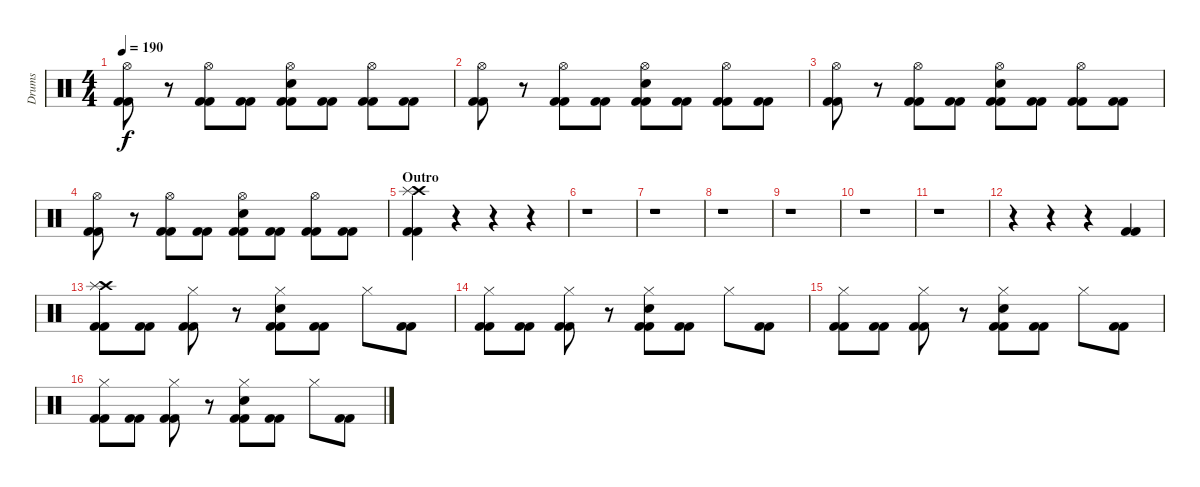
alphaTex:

\track ("Drums" "Drums") {instrument percussion}
\staff {score}
\articulation defaults
\ts (4 4)
\tempo 190
\clef neutral
\ks c
("Hi-Hat (open)" "Kick (hit) 2" "Kick (hit) 2").8{dy f} r.8 ("Hi-Hat (open)" "Kick (hit) 2" "Kick (hit) 2").8 ("Kick (hit) 2" "Kick (hit) 2").8 ("Hi-Hat (open)" "Snare (hit) 2" "Kick (hit) 2" "Kick (hit) 2").8 ("Kick (hit) 2" "Kick (hit) 2").8 ("Hi-Hat (open)" "Kick (hit) 2" "Kick (hit) 2").8 ("Kick (hit) 2" "Kick (hit) 2").8 |
("Hi-Hat (open)" "Kick (hit) 2" "Kick (hit) 2").8 r.8 ("Hi-Hat (open)" "Kick (hit) 2" "Kick (hit) 2").8 ("Kick (hit) 2" "Kick (hit) 2").8 ("Hi-Hat (open)" "Snare (hit) 2" "Kick (hit) 2" "Kick (hit) 2").8 ("Kick (hit) 2" "Kick (hit) 2").8 ("Hi-Hat (open)" "Kick (hit) 2" "Kick (hit) 2").8 ("Kick (hit) 2" "Kick (hit) 2").8 |
("Hi-Hat (open)" "Kick (hit) 2" "Kick (hit) 2").8 r.8 ("Hi-Hat (open)" "Kick (hit) 2" "Kick (hit) 2").8 ("Kick (hit) 2" "Kick (hit) 2").8 ("Hi-Hat (open)" "Snare (hit) 2" "Kick (hit) 2" "Kick (hit) 2").8 ("Kick (hit) 2" "Kick (hit) 2").8 ("Hi-Hat (open)" "Kick (hit) 2" "Kick (hit) 2").8 ("Kick (hit) 2" "Kick (hit) 2").8 |
("Hi-Hat (open)" "Kick (hit) 2" "Kick (hit) 2").8 r.8 ("Hi-Hat (open)" "Kick (hit) 2" "Kick (hit) 2").8 ("Kick (hit) 2" "Kick (hit) 2").8 ("Hi-Hat (open)" "Snare (hit) 2" "Kick (hit) 2" "Kick (hit) 2").8 ("Kick (hit) 2" "Kick (hit) 2").8 ("Hi-Hat (open)" "Kick (hit) 2" "Kick (hit) 2").8 ("Kick (hit) 2" "Kick (hit) 2").8 |
\section ("" "Outro")
("Crash high (hit)" "Splash (hit)" "Kick (hit) 2" "Kick (hit) 2").4 r.4 r.4 r.4 |
r.1 |
r.1 |
r.1 |
r.1 |
r.1 |
r.1 |
r.4 r.4 r.4 ("Kick (hit) 2" "Kick (hit) 2").4 |
("Crash high (hit)" "Splash (hit)" "Kick (hit) 2" "Kick (hit) 2").8 ("Kick (hit) 2" "Kick (hit) 2").8 ("Hi-Hat (closed)" "Kick (hit) 2" "Kick (hit) 2").8 r.8 ("Hi-Hat (closed)" "Snare (hit) 2" "Kick (hit) 2" "Kick (hit) 2").8 ("Kick (hit) 2" "Kick (hit) 2").8 "Hi-Hat (closed)".8 ("Kick (hit) 2" "Kick (hit) 2").8 |
("Hi-Hat (closed)" "Kick (hit) 2" "Kick (hit) 2").8 ("Kick (hit) 2" "Kick (hit) 2").8 ("Hi-Hat (closed)" "Kick (hit) 2" "Kick (hit) 2").8 r.8 ("Hi-Hat (closed)" "Snare (hit) 2" "Kick (hit) 2" "Kick (hit) 2").8 ("Kick (hit) 2" "Kick (hit) 2").8 "Hi-Hat (closed)".8 ("Kick (hit) 2" "Kick (hit) 2").8 |
("Hi-Hat (closed)" "Kick (hit) 2" "Kick (hit) 2").8 ("Kick (hit) 2" "Kick (hit) 2").8 ("Hi-Hat (closed)" "Kick (hit) 2" "Kick (hit) 2").8 r.8 ("Hi-Hat (closed)" "Snare (hit) 2" "Kick (hit) 2" "Kick (hit) 2").8 ("Kick (hit) 2" "Kick (hit) 2").8 "Hi-Hat (closed)".8 ("Kick (hit) 2" "Kick (hit) 2").8 |
("Hi-Hat (closed)" "Kick (hit) 2" "Kick (hit) 2").8 ("Kick (hit) 2" "Kick (hit) 2").8 ("Hi-Hat (closed)" "Kick (hit) 2" "Kick (hit) 2").8 r.8 ("Hi-Hat (closed)" "Snare (hit) 2" "Kick (hit) 2" "Kick (hit) 2").8 ("Kick (hit) 2" "Kick (hit) 2").8 "Hi-Hat (closed)".8 ("Kick (hit) 2" "Kick (hit) 2").8
